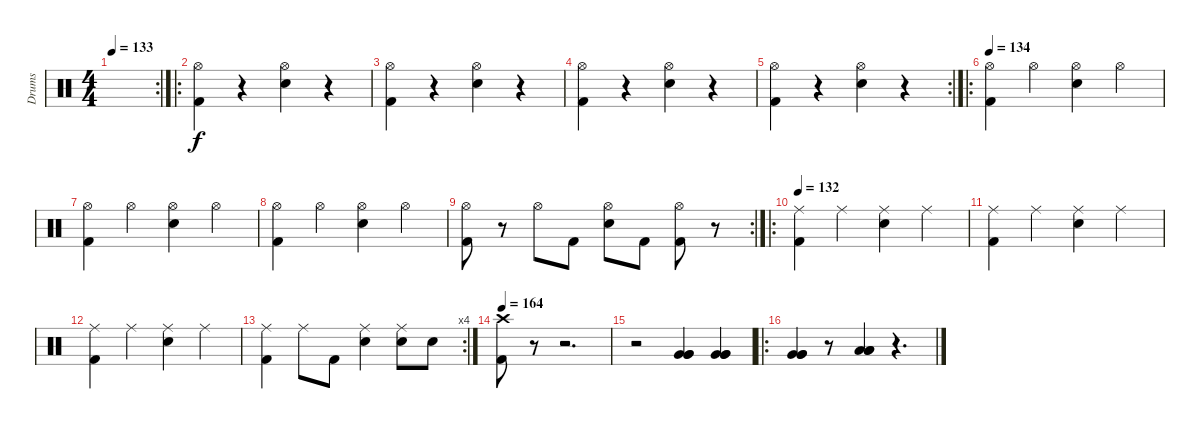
\track ("Drums" "Drums") {instrument percussion}
\staff {score}
\articulation defaults
\rc 2
\ts (4 4)
\tempo 133
\clef neutral
\ks c
|
\ro
("Kick (hit) 2" "Hi-Hat (open)").4 r.4 ("Snare (hit) 2" "Hi-Hat (open)").4 r.4 |
("Kick (hit) 2" "Hi-Hat (open)").4 r.4 ("Snare (hit) 2" "Hi-Hat (open)").4 r.4 |
("Kick (hit) 2" "Hi-Hat (open)").4 r.4 ("Snare (hit) 2" "Hi-Hat (open)").4 r.4 |
\rc 2
("Kick (hit) 2" "Hi-Hat (open)").4 r.4 ("Snare (hit) 2" "Hi-Hat (open)").4 r.4 |
\ro
\tempo 134
("Kick (hit) 2" "Hi-Hat (open)").4 "Hi-Hat (open)".4 ("Snare (hit) 2" "Hi-Hat (open)").4 "Hi-Hat (open)".4 |
("Kick (hit) 2" "Hi-Hat (open)").4 "Hi-Hat (open)".4 ("Snare (hit) 2" "Hi-Hat (open)").4 "Hi-Hat (open)".4 |
("Kick (hit) 2" "Hi-Hat (open)").4 "Hi-Hat (open)".4 ("Snare (hit) 2" "Hi-Hat (open)").4 "Hi-Hat (open)".4 |
\rc 2
("Kick (hit) 2" "Hi-Hat (open)").8 r.8 "Hi-Hat (open)".8 "Kick (hit) 2".8 ("Snare (hit) 2" "Hi-Hat (open)").8 "Kick (hit) 2".8 ("Kick (hit) 2" "Hi-Hat (open)").8 r.8 |
\ro
\tempo 132
("Kick (hit) 2" "Ride (middle)").4 "Ride (middle)".4 ("Snare (hit) 2" "Ride (middle)").4 "Ride (middle)".4 |
("Kick (hit) 2" "Ride (middle)").4 "Ride (middle)".4 ("Snare (hit) 2" "Ride (middle)").4 "Ride (middle)".4 |
("Kick (hit) 2" "Ride (middle)").4 "Ride (middle)".4 ("Snare (hit) 2" "Ride (middle)").4 "Ride (middle)".4 |
\rc 4
("Kick (hit) 2" "Ride (middle)").4 "Ride (middle)".8 "Kick (hit) 2".8 ("Snare (hit) 2" "Ride (middle)").4 ("Snare (hit) 2" "Ride (middle)").8 "Snare (hit) 2".8 |
\tempo 150
\tempo 164
("Crash high (hit)" "Kick (hit) 2").8 r.8 r.2{d} |
r.2 ("Very Low Tom (hit)" "Very Low Tom (hit)" "Very Low Tom (hit)").4 ("Very Low Tom (hit)" "Very Low Tom (hit)" "Very Low Tom (hit)").4 |
\ro
("Very Low Tom (hit)" "Very Low Tom (hit)" "Very Low Tom (hit)").4 r.8 ("Low Tom (hit)" "Low Tom (hit)" "Low Tom (hit)").4 r.4{d}
